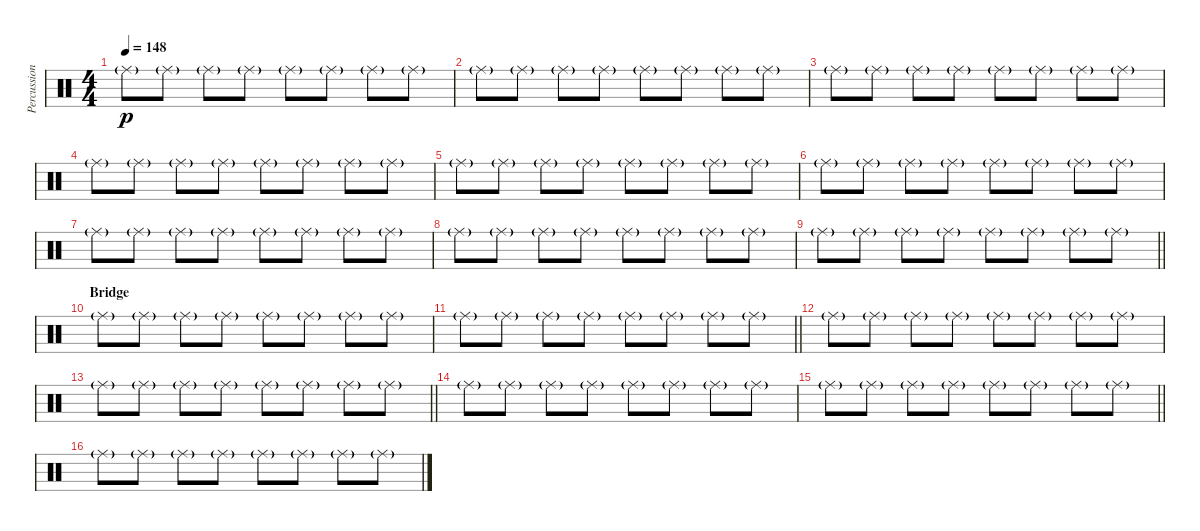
\track ("Percussions" "Percussion") {instrument percussion}
\staff {score}
\articulation defaults
\ts (4 4)
\tempo 148
\clef neutral
\ks c "Ride (middle)"{g}.8{dy p} "Ride (middle)"{g}.8 "Ride (middle)"{g}.8 "Ride (middle)"{g}.8 "Ride (middle)"{g}.8 "Ride (middle)"{g}.8 "Ride (middle)"{g}.8 "Ride (middle)"{g}.8
|
"Ride (middle)"{g}.8 "Ride (middle)"{g}.8 "Ride (middle)"{g}.8 "Ride (middle)"{g}.8 "Ride (middle)"{g}.8 "Ride (middle)"{g}.8 "Ride (middle)"{g}.8 "Ride (middle)"{g}.8 |
"Ride (middle)"{g}.8 "Ride (middle)"{g}.8 "Ride (middle)"{g}.8 "Ride (middle)"{g}.8 "Ride (middle)"{g}.8 "Ride (middle)"{g}.8 "Ride (middle)"{g}.8 "Ride (middle)"{g}.8 |
"Ride (middle)"{g}.8 "Ride (middle)"{g}.8 "Ride (middle)"{g}.8 "Ride (middle)"{g}.8 "Ride (middle)"{g}.8 "Ride (middle)"{g}.8 "Ride (middle)"{g}.8 "Ride (middle)"{g}.8 |
"Ride (middle)"{g}.8 "Ride (middle)"{g}.8 "Ride (middle)"{g}.8 "Ride (middle)"{g}.8 "Ride (middle)"{g}.8 "Ride (middle)"{g}.8 "Ride (middle)"{g}.8 "Ride (middle)"{g}.8 |
"Ride (middle)"{g}.8 "Ride (middle)"{g}.8 "Ride (middle)"{g}.8 "Ride (middle)"{g}.8 "Ride (middle)"{g}.8 "Ride (middle)"{g}.8 "Ride (middle)"{g}.8 "Ride (middle)"{g}.8 |
"Ride (middle)"{g}.8 "Ride (middle)"{g}.8 "Ride (middle)"{g}.8 "Ride (middle)"{g}.8 "Ride (middle)"{g}.8 "Ride (middle)"{g}.8 "Ride (middle)"{g}.8 "Ride (middle)"{g}.8 |
"Ride (middle)"{g}.8 "Ride (middle)"{g}.8 "Ride (middle)"{g}.8 "Ride (middle)"{g}.8 "Ride (middle)"{g}.8 "Ride (middle)"{g}.8 "Ride (middle)"{g}.8 "Ride (middle)"{g}.8 |
\barLineRight lightlight "Ride (middle)"{g}.8 "Ride (middle)"{g}.8 "Ride (middle)"{g}.8 "Ride (middle)"{g}.8 "Ride (middle)"{g}.8 "Ride (middle)"{g}.8 "Ride (middle)"{g}.8 "Ride (middle)"{g}.8
|
\section ("" "Bridge")
"Ride (middle)"{g}.8 "Ride (middle)"{g}.8 "Ride (middle)"{g}.8 "Ride (middle)"{g}.8 "Ride (middle)"{g}.8 "Ride (middle)"{g}.8 "Ride (middle)"{g}.8 "Ride (middle)"{g}.8 |
\barLineRight lightlight "Ride (middle)"{g}.8 "Ride (middle)"{g}.8 "Ride (middle)"{g}.8 "Ride (middle)"{g}.8 "Ride (middle)"{g}.8 "Ride (middle)"{g}.8 "Ride (middle)"{g}.8 "Ride (middle)"{g}.8
|
"Ride (middle)"{g}.8 "Ride (middle)"{g}.8 "Ride (middle)"{g}.8 "Ride (middle)"{g}.8 "Ride (middle)"{g}.8 "Ride (middle)"{g}.8 "Ride (middle)"{g}.8 "Ride (middle)"{g}.8 |
\barLineRight lightlight "Ride (middle)"{g}.8 "Ride (middle)"{g}.8 "Ride (middle)"{g}.8 "Ride (middle)"{g}.8 "Ride (middle)"{g}.8 "Ride (middle)"{g}.8 "Ride (middle)"{g}.8 "Ride (middle)"{g}.8
|
"Ride (middle)"{g}.8 "Ride (middle)"{g}.8 "Ride (middle)"{g}.8 "Ride (middle)"{g}.8 "Ride (middle)"{g}.8 "Ride (middle)"{g}.8 "Ride (middle)"{g}.8 "Ride (middle)"{g}.8 |
\barLineRight lightlight "Ride (middle)"{g}.8 "Ride (middle)"{g}.8 "Ride (middle)"{g}.8 "Ride (middle)"{g}.8 "Ride (middle)"{g}.8 "Ride (middle)"{g}.8 "Ride (middle)"{g}.8 "Ride (middle)"{g}.8
|
"Ride (middle)"{g}.8 "Ride (middle)"{g}.8 "Ride (middle)"{g}.8 "Ride (middle)"{g}.8 "Ride (middle)"{g}.8 "Ride (middle)"{g}.8 "Ride (middle)"{g}.8 "Ride (middle)"{g}.8
